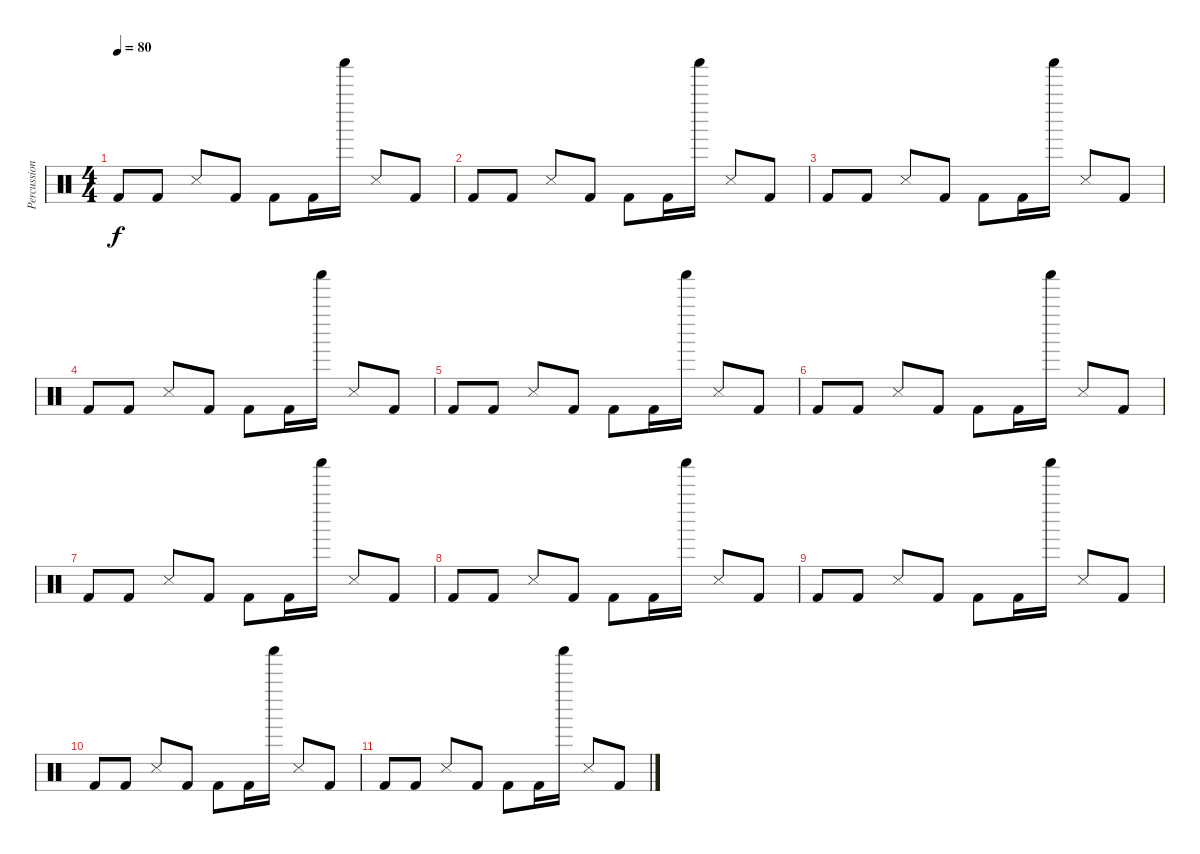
\track ("Percussions" "Percussion") {instrument percussion}
\staff {score}
\articulation defaults
\ts (4 4)
\tempo 80
\clef neutral
\ks c "Kick (hit) 2".8{dy f} "Kick (hit) 2".8 "Snare (side stick) 3".8 "Kick (hit) 2".8 "Kick (hit) 2".8 "Kick (hit) 2".16 "Shaker (hit)".16 "Snare (side stick) 3".8 "Kick (hit) 2".8
|
"Kick (hit) 2".8 "Kick (hit) 2".8 "Snare (side stick) 3".8 "Kick (hit) 2".8 "Kick (hit) 2".8 "Kick (hit) 2".16 "Shaker (hit)".16 "Snare (side stick) 3".8 "Kick (hit) 2".8 |
"Kick (hit) 2".8 "Kick (hit) 2".8 "Snare (side stick) 3".8 "Kick (hit) 2".8 "Kick (hit) 2".8 "Kick (hit) 2".16 "Shaker (hit)".16 "Snare (side stick) 3".8 "Kick (hit) 2".8 |
"Kick (hit) 2".8 "Kick (hit) 2".8 "Snare (side stick) 3".8 "Kick (hit) 2".8 "Kick (hit) 2".8 "Kick (hit) 2".16 "Shaker (hit)".16 "Snare (side stick) 3".8 "Kick (hit) 2".8 |
"Kick (hit) 2".8 "Kick (hit) 2".8 "Snare (side stick) 3".8 "Kick (hit) 2".8 "Kick (hit) 2".8 "Kick (hit) 2".16 "Shaker (hit)".16 "Snare (side stick) 3".8 "Kick (hit) 2".8 |
"Kick (hit) 2".8 "Kick (hit) 2".8 "Snare (side stick) 3".8 "Kick (hit) 2".8 "Kick (hit) 2".8 "Kick (hit) 2".16 "Shaker (hit)".16 "Snare (side stick) 3".8 "Kick (hit) 2".8 |
"Kick (hit) 2".8 "Kick (hit) 2".8 "Snare (side stick) 3".8 "Kick (hit) 2".8 "Kick (hit) 2".8 "Kick (hit) 2".16 "Shaker (hit)".16 "Snare (side stick) 3".8 "Kick (hit) 2".8 |
"Kick (hit) 2".8 "Kick (hit) 2".8 "Snare (side stick) 3".8 "Kick (hit) 2".8 "Kick (hit) 2".8 "Kick (hit) 2".16 "Shaker (hit)".16 "Snare (side stick) 3".8 "Kick (hit) 2".8 |
"Kick (hit) 2".8 "Kick (hit) 2".8 "Snare (side stick) 3".8 "Kick (hit) 2".8 "Kick (hit) 2".8 "Kick (hit) 2".16 "Shaker (hit)".16 "Snare (side stick) 3".8 "Kick (hit) 2".8 |
"Kick (hit) 2".8 "Kick (hit) 2".8 "Snare (side stick) 3".8 "Kick (hit) 2".8 "Kick (hit) 2".8 "Kick (hit) 2".16 "Shaker (hit)".16 "Snare (side stick) 3".8 "Kick (hit) 2".8 |
"Kick (hit) 2".8 "Kick (hit) 2".8 "Snare (side stick) 3".8 "Kick (hit) 2".8 "Kick (hit) 2".8 "Kick (hit) 2".16 "Shaker (hit)".16 "Snare (side stick) 3".8 "Kick (hit) 2".8
